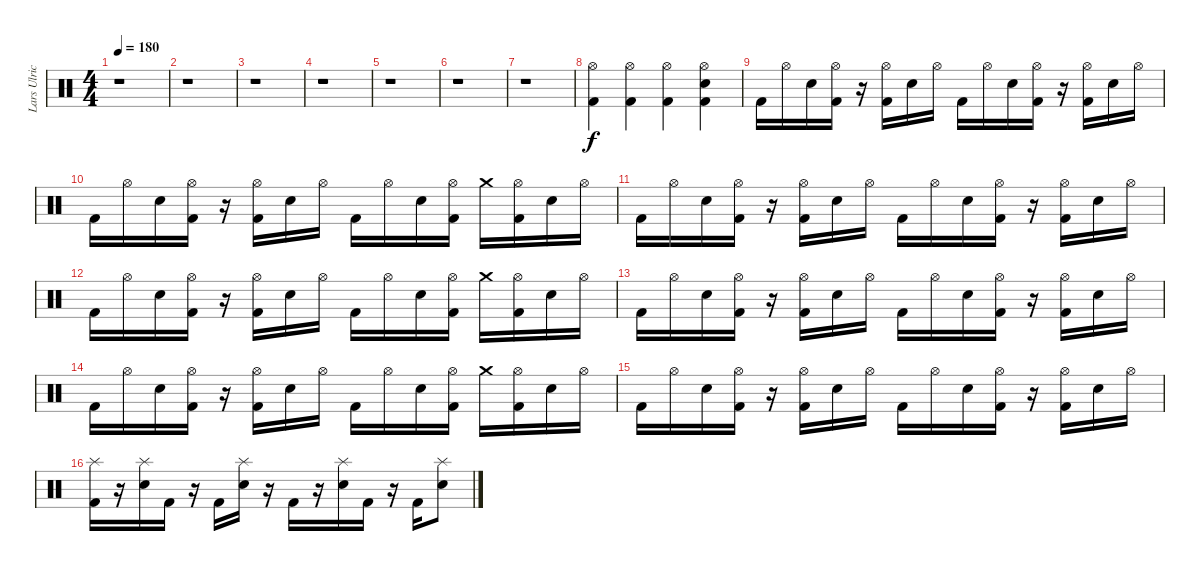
\track ("Lars Ulrich" "Lars Ulric") {instrument percussion}
\staff {score}
\articulation defaults
\ts (4 4)
\tempo 180
\clef neutral
\ks c
r.1{dy f} |
r.1 |
r.1 |
r.1 |
r.1 |
r.1 |
r.1 |
("Hi-Hat (open)" "Kick (hit) 2").4 ("Hi-Hat (open)" "Kick (hit) 2").4 ("Hi-Hat (open)" "Kick (hit) 2").4 ("Hi-Hat (open)" "Electric Snare (hit)" "Kick (hit) 2").4 |
"Kick (hit) 2".16 "Hi-Hat (open)".16 "Electric Snare (hit)".16 ("Hi-Hat (open)" "Kick (hit) 2").16 r.16 ("Hi-Hat (open)" "Kick (hit) 2").16 "Electric Snare (hit)".16 "Hi-Hat (open)".16 "Kick (hit) 2".16 "Hi-Hat (open)".16 "Electric Snare (hit)".16 ("Hi-Hat (open)" "Kick (hit) 2").16 r.16 ("Hi-Hat (open)" "Kick (hit) 2").16 "Electric Snare (hit)".16 "Hi-Hat (open)".16 |
"Kick (hit) 2".16 "Hi-Hat (open)".16 "Electric Snare (hit)".16 ("Hi-Hat (open)" "Kick (hit) 2").16 r.16 ("Hi-Hat (open)" "Kick (hit) 2").16 "Electric Snare (hit)".16 "Hi-Hat (open)".16 "Kick (hit) 2".16 "Hi-Hat (open)".16 "Electric Snare (hit)".16 ("Hi-Hat (open)" "Kick (hit) 2").16 "Crash medium (hit)".16 ("Hi-Hat (open)" "Kick (hit) 2").16 "Electric Snare (hit)".16 "Hi-Hat (open)".16 |
"Kick (hit) 2".16 "Hi-Hat (open)".16 "Electric Snare (hit)".16 ("Hi-Hat (open)" "Kick (hit) 2").16 r.16 ("Hi-Hat (open)" "Kick (hit) 2").16 "Electric Snare (hit)".16 "Hi-Hat (open)".16 "Kick (hit) 2".16 "Hi-Hat (open)".16 "Electric Snare (hit)".16 ("Hi-Hat (open)" "Kick (hit) 2").16 r.16 ("Hi-Hat (open)" "Kick (hit) 2").16 "Electric Snare (hit)".16 "Hi-Hat (open)".16 |
"Kick (hit) 2".16 "Hi-Hat (open)".16 "Electric Snare (hit)".16 ("Hi-Hat (open)" "Kick (hit) 2").16 r.16 ("Hi-Hat (open)" "Kick (hit) 2").16 "Electric Snare (hit)".16 "Hi-Hat (open)".16 "Kick (hit) 2".16 "Hi-Hat (open)".16 "Electric Snare (hit)".16 ("Hi-Hat (open)" "Kick (hit) 2").16 "Crash medium (hit)".16 ("Hi-Hat (open)" "Kick (hit) 2").16 "Electric Snare (hit)".16 "Hi-Hat (open)".16 |
"Kick (hit) 2".16 "Hi-Hat (open)".16 "Electric Snare (hit)".16 ("Hi-Hat (open)" "Kick (hit) 2").16 r.16 ("Hi-Hat (open)" "Kick (hit) 2").16 "Electric Snare (hit)".16 "Hi-Hat (open)".16 "Kick (hit) 2".16 "Hi-Hat (open)".16 "Electric Snare (hit)".16 ("Hi-Hat (open)" "Kick (hit) 2").16 r.16 ("Hi-Hat (open)" "Kick (hit) 2").16 "Electric Snare (hit)".16 "Hi-Hat (open)".16 |
"Kick (hit) 2".16 "Hi-Hat (open)".16 "Electric Snare (hit)".16 ("Hi-Hat (open)" "Kick (hit) 2").16 r.16 ("Hi-Hat (open)" "Kick (hit) 2").16 "Electric Snare (hit)".16 "Hi-Hat (open)".16 "Kick (hit) 2".16 "Hi-Hat (open)".16 "Electric Snare (hit)".16 ("Hi-Hat (open)" "Kick (hit) 2").16 "Crash medium (hit)".16 ("Hi-Hat (open)" "Kick (hit) 2").16 "Electric Snare (hit)".16 "Hi-Hat (open)".16 |
"Kick (hit) 2".16 "Hi-Hat (open)".16 "Electric Snare (hit)".16 ("Hi-Hat (open)" "Kick (hit) 2").16 r.16 ("Hi-Hat (open)" "Kick (hit) 2").16 "Electric Snare (hit)".16 "Hi-Hat (open)".16 "Kick (hit) 2".16 "Hi-Hat (open)".16 "Electric Snare (hit)".16 ("Hi-Hat (open)" "Kick (hit) 2").16 r.16 ("Hi-Hat (open)" "Kick (hit) 2").16 "Electric Snare (hit)".16 "Hi-Hat (open)".16 |
("Splash (hit)" "Kick (hit) 2").16 r.16 ("Splash (hit)" "Electric Snare (hit)").16 "Kick (hit) 2".16 r.16 "Kick (hit) 2".16 ("Splash (hit)" "Electric Snare (hit)").16 r.16 "Kick (hit) 2".16 r.16 ("Splash (hit)" "Electric Snare (hit)").16 "Kick (hit) 2".16 r.16 "Kick (hit) 2".16 ("Splash (hit)" "Electric Snare (hit)").8
